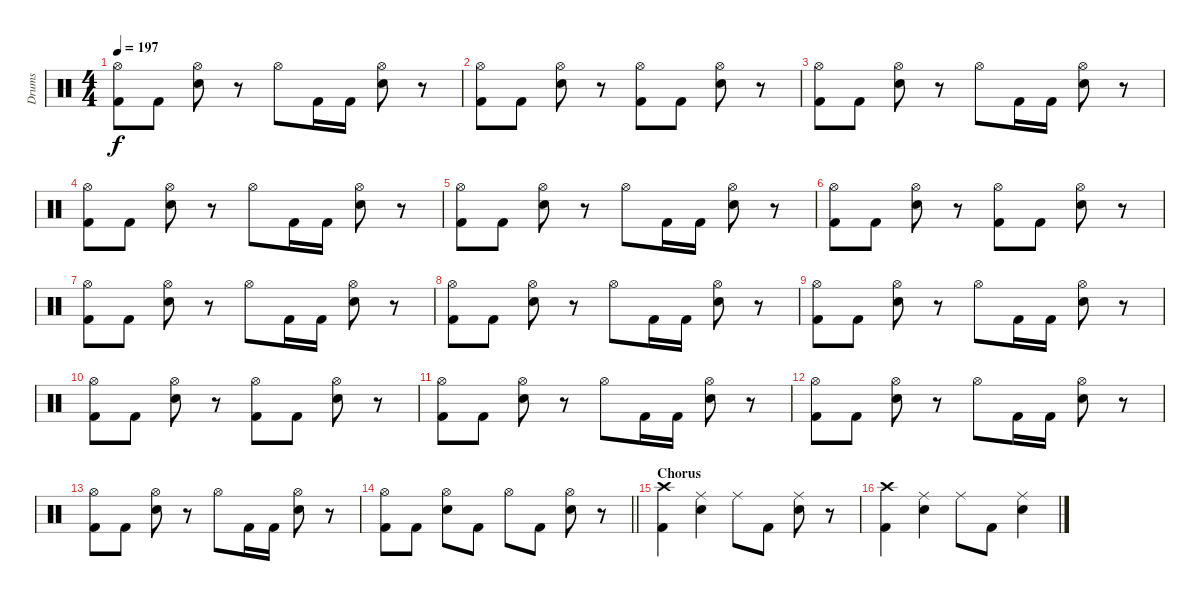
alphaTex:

\track ("Drums" "Drums") {instrument percussion}
\staff {score}
\articulation defaults
\ts (4 4)
\tempo 197
\clef neutral
\ks c
("Hi-Hat (open)" "Kick (hit) 2").8{dy f} "Kick (hit) 2".8 ("Hi-Hat (open)" "Electric Snare (hit)").8 r.8 "Hi-Hat (open)".8 "Kick (hit) 2".16 "Kick (hit) 2".16 ("Hi-Hat (open)" "Electric Snare (hit)").8 r.8 |
("Hi-Hat (open)" "Kick (hit) 2").8 "Kick (hit) 2".8 ("Hi-Hat (open)" "Electric Snare (hit)").8 r.8 ("Hi-Hat (open)" "Kick (hit) 2").8 "Kick (hit) 2".8 ("Hi-Hat (open)" "Electric Snare (hit)").8 r.8 |
("Hi-Hat (open)" "Kick (hit) 2").8 "Kick (hit) 2".8 ("Hi-Hat (open)" "Electric Snare (hit)").8 r.8 "Hi-Hat (open)".8 "Kick (hit) 2".16 "Kick (hit) 2".16 ("Hi-Hat (open)" "Electric Snare (hit)").8 r.8 |
("Hi-Hat (open)" "Kick (hit) 2").8 "Kick (hit) 2".8 ("Hi-Hat (open)" "Electric Snare (hit)").8 r.8 "Hi-Hat (open)".8 "Kick (hit) 2".16 "Kick (hit) 2".16 ("Hi-Hat (open)" "Electric Snare (hit)").8 r.8 |
("Hi-Hat (open)" "Kick (hit) 2").8 "Kick (hit) 2".8 ("Hi-Hat (open)" "Electric Snare (hit)").8 r.8 "Hi-Hat (open)".8 "Kick (hit) 2".16 "Kick (hit) 2".16 ("Hi-Hat (open)" "Electric Snare (hit)").8 r.8 |
("Hi-Hat (open)" "Kick (hit) 2").8 "Kick (hit) 2".8 ("Hi-Hat (open)" "Electric Snare (hit)").8 r.8 ("Hi-Hat (open)" "Kick (hit) 2").8 "Kick (hit) 2".8 ("Hi-Hat (open)" "Electric Snare (hit)").8 r.8 |
("Hi-Hat (open)" "Kick (hit) 2").8 "Kick (hit) 2".8 ("Hi-Hat (open)" "Electric Snare (hit)").8 r.8 "Hi-Hat (open)".8 "Kick (hit) 2".16 "Kick (hit) 2".16 ("Hi-Hat (open)" "Electric Snare (hit)").8 r.8 |
("Hi-Hat (open)" "Kick (hit) 2").8 "Kick (hit) 2".8 ("Hi-Hat (open)" "Electric Snare (hit)").8 r.8 "Hi-Hat (open)".8 "Kick (hit) 2".16 "Kick (hit) 2".16 ("Hi-Hat (open)" "Electric Snare (hit)").8 r.8 |
("Hi-Hat (open)" "Kick (hit) 2").8 "Kick (hit) 2".8 ("Hi-Hat (open)" "Electric Snare (hit)").8 r.8 "Hi-Hat (open)".8 "Kick (hit) 2".16 "Kick (hit) 2".16 ("Hi-Hat (open)" "Electric Snare (hit)").8 r.8 |
("Hi-Hat (open)" "Kick (hit) 2").8 "Kick (hit) 2".8 ("Hi-Hat (open)" "Electric Snare (hit)").8 r.8 ("Hi-Hat (open)" "Kick (hit) 2").8 "Kick (hit) 2".8 ("Hi-Hat (open)" "Electric Snare (hit)").8 r.8 |
("Hi-Hat (open)" "Kick (hit) 2").8 "Kick (hit) 2".8 ("Hi-Hat (open)" "Electric Snare (hit)").8 r.8 "Hi-Hat (open)".8 "Kick (hit) 2".16 "Kick (hit) 2".16 ("Hi-Hat (open)" "Electric Snare (hit)").8 r.8 |
("Hi-Hat (open)" "Kick (hit) 2").8 "Kick (hit) 2".8 ("Hi-Hat (open)" "Electric Snare (hit)").8 r.8 "Hi-Hat (open)".8 "Kick (hit) 2".16 "Kick (hit) 2".16 ("Hi-Hat (open)" "Electric Snare (hit)").8 r.8 |
("Hi-Hat (open)" "Kick (hit) 2").8 "Kick (hit) 2".8 ("Hi-Hat (open)" "Electric Snare (hit)").8 r.8 "Hi-Hat (open)".8 "Kick (hit) 2".16 "Kick (hit) 2".16 ("Hi-Hat (open)" "Electric Snare (hit)").8 r.8 |
\barLineRight lightlight
("Hi-Hat (open)" "Kick (hit) 2").8 "Kick (hit) 2".8 ("Hi-Hat (open)" "Electric Snare (hit)").8 "Kick (hit) 2".8 "Hi-Hat (open)".8 "Kick (hit) 2".8 ("Hi-Hat (open)" "Electric Snare (hit)").8 r.8 |
\section ("" "Chorus")
("Crash high (hit)" "Kick (hit) 2").4 ("Ride (middle)" "Electric Snare (hit)").4 "Ride (middle)".8 "Kick (hit) 2".8 ("Ride (middle)" "Electric Snare (hit)").8 r.8 |
("Crash high (hit)" "Kick (hit) 2").4 ("Ride (middle)" "Electric Snare (hit)").4 "Ride (middle)".8 "Kick (hit) 2".8 ("Ride (middle)" "Electric Snare (hit)").4
